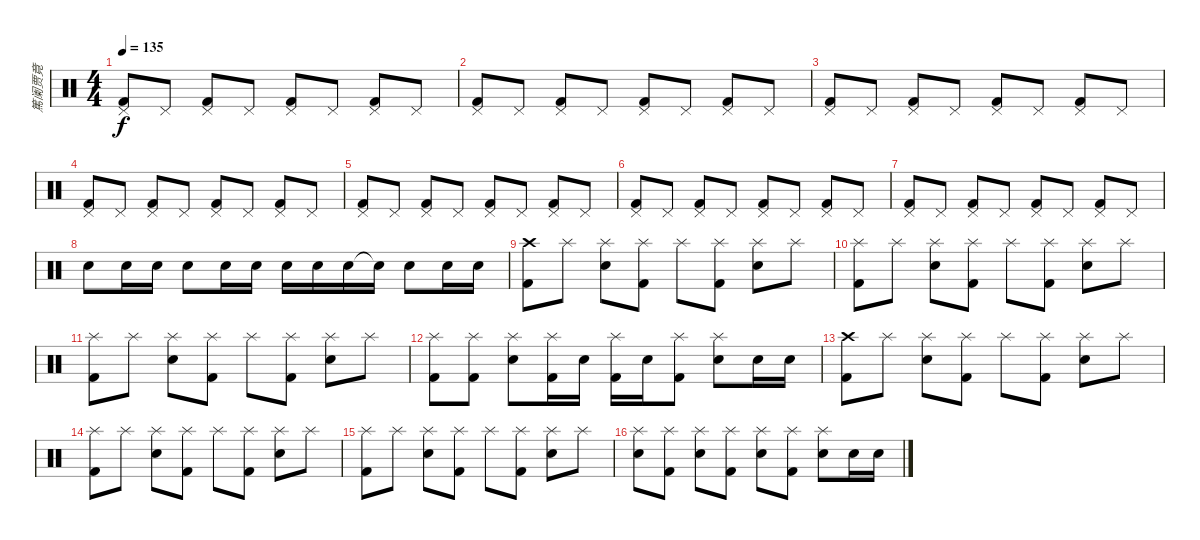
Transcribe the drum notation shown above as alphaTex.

\track ("篤阑贾竟" "篤阑贾竟") {instrument percussion}
\staff {score}
\articulation defaults
\ts (4 4)
\tempo 135
\clef neutral
\ks c
("Pedal Hi-Hat (hit)" "Kick (hit) 2").8{dy f} "Pedal Hi-Hat (hit)".8 ("Pedal Hi-Hat (hit)" "Kick (hit) 2").8 "Pedal Hi-Hat (hit)".8 ("Pedal Hi-Hat (hit)" "Kick (hit) 2").8 "Pedal Hi-Hat (hit)".8 ("Pedal Hi-Hat (hit)" "Kick (hit) 2").8 "Pedal Hi-Hat (hit)".8 |
("Pedal Hi-Hat (hit)" "Kick (hit) 2").8 "Pedal Hi-Hat (hit)".8 ("Pedal Hi-Hat (hit)" "Kick (hit) 2").8 "Pedal Hi-Hat (hit)".8 ("Pedal Hi-Hat (hit)" "Kick (hit) 2").8 "Pedal Hi-Hat (hit)".8 ("Pedal Hi-Hat (hit)" "Kick (hit) 2").8 "Pedal Hi-Hat (hit)".8 |
("Pedal Hi-Hat (hit)" "Kick (hit) 2").8 "Pedal Hi-Hat (hit)".8 ("Pedal Hi-Hat (hit)" "Kick (hit) 2").8 "Pedal Hi-Hat (hit)".8 ("Pedal Hi-Hat (hit)" "Kick (hit) 2").8 "Pedal Hi-Hat (hit)".8 ("Pedal Hi-Hat (hit)" "Kick (hit) 2").8 "Pedal Hi-Hat (hit)".8 |
("Pedal Hi-Hat (hit)" "Kick (hit) 2").8 "Pedal Hi-Hat (hit)".8 ("Pedal Hi-Hat (hit)" "Kick (hit) 2").8 "Pedal Hi-Hat (hit)".8 ("Pedal Hi-Hat (hit)" "Kick (hit) 2").8 "Pedal Hi-Hat (hit)".8 ("Pedal Hi-Hat (hit)" "Kick (hit) 2").8 "Pedal Hi-Hat (hit)".8 |
("Pedal Hi-Hat (hit)" "Kick (hit) 2").8 "Pedal Hi-Hat (hit)".8 ("Pedal Hi-Hat (hit)" "Kick (hit) 2").8 "Pedal Hi-Hat (hit)".8 ("Pedal Hi-Hat (hit)" "Kick (hit) 2").8 "Pedal Hi-Hat (hit)".8 ("Pedal Hi-Hat (hit)" "Kick (hit) 2").8 "Pedal Hi-Hat (hit)".8 |
("Pedal Hi-Hat (hit)" "Kick (hit) 2").8 "Pedal Hi-Hat (hit)".8 ("Pedal Hi-Hat (hit)" "Kick (hit) 2").8 "Pedal Hi-Hat (hit)".8 ("Pedal Hi-Hat (hit)" "Kick (hit) 2").8 "Pedal Hi-Hat (hit)".8 ("Pedal Hi-Hat (hit)" "Kick (hit) 2").8 "Pedal Hi-Hat (hit)".8 |
("Pedal Hi-Hat (hit)" "Kick (hit) 2").8 "Pedal Hi-Hat (hit)".8 ("Pedal Hi-Hat (hit)" "Kick (hit) 2").8 "Pedal Hi-Hat (hit)".8 ("Pedal Hi-Hat (hit)" "Kick (hit) 2").8 "Pedal Hi-Hat (hit)".8 ("Pedal Hi-Hat (hit)" "Kick (hit) 2").8 "Pedal Hi-Hat (hit)".8 |
"Electric Snare (hit)".8 "Electric Snare (hit)".16 "Electric Snare (hit)".16 "Electric Snare (hit)".8 "Electric Snare (hit)".16 "Electric Snare (hit)".16 "Electric Snare (hit)".16 "Electric Snare (hit)".16 "Electric Snare (hit)".16 "Snare (hit)"{t}.16 "Electric Snare (hit)".8 "Electric Snare (hit)".16 "Electric Snare (hit)".16 |
("Crash high (hit)" "Kick (hit) 2").8 "Splash (hit)".8 ("Splash (hit)" "Electric Snare (hit)").8 ("Splash (hit)" "Kick (hit) 2").8 "Splash (hit)".8 ("Splash (hit)" "Kick (hit) 2").8 ("Splash (hit)" "Electric Snare (hit)").8 "Splash (hit)".8 |
("Splash (hit)" "Kick (hit) 2").8 "Splash (hit)".8 ("Splash (hit)" "Electric Snare (hit)").8 ("Splash (hit)" "Kick (hit) 2").8 "Splash (hit)".8 ("Splash (hit)" "Kick (hit) 2").8 ("Splash (hit)" "Electric Snare (hit)").8 "Splash (hit)".8 |
("Splash (hit)" "Kick (hit) 2").8 "Splash (hit)".8 ("Splash (hit)" "Electric Snare (hit)").8 ("Splash (hit)" "Kick (hit) 2").8 "Splash (hit)".8 ("Splash (hit)" "Kick (hit) 2").8 ("Splash (hit)" "Electric Snare (hit)").8 "Splash (hit)".8 |
("Splash (hit)" "Kick (hit) 2").8 ("Splash (hit)" "Kick (hit) 2").8 ("Splash (hit)" "Electric Snare (hit)").8 ("Splash (hit)" "Kick (hit) 2").16 "Electric Snare (hit)".16 ("Splash (hit)" "Kick (hit) 2").16 "Electric Snare (hit)".16 ("Splash (hit)" "Kick (hit) 2").8 ("Splash (hit)" "Electric Snare (hit)").8 "Electric Snare (hit)".16 "Electric Snare (hit)".16 |
("Crash high (hit)" "Kick (hit) 2").8 "Splash (hit)".8 ("Splash (hit)" "Electric Snare (hit)").8 ("Splash (hit)" "Kick (hit) 2").8 "Splash (hit)".8 ("Splash (hit)" "Kick (hit) 2").8 ("Splash (hit)" "Electric Snare (hit)").8 "Splash (hit)".8 |
("Splash (hit)" "Kick (hit) 2").8 "Splash (hit)".8 ("Splash (hit)" "Electric Snare (hit)").8 ("Splash (hit)" "Kick (hit) 2").8 "Splash (hit)".8 ("Splash (hit)" "Kick (hit) 2").8 ("Splash (hit)" "Electric Snare (hit)").8 "Splash (hit)".8 |
("Splash (hit)" "Kick (hit) 2").8 "Splash (hit)".8 ("Splash (hit)" "Electric Snare (hit)").8 ("Splash (hit)" "Kick (hit) 2").8 "Splash (hit)".8 ("Splash (hit)" "Kick (hit) 2").8 ("Splash (hit)" "Electric Snare (hit)").8 "Splash (hit)".8 |
("Splash (hit)" "Electric Snare (hit)").8 ("Splash (hit)" "Kick (hit) 2").8 ("Splash (hit)" "Electric Snare (hit)").8 ("Splash (hit)" "Kick (hit) 2").8 ("Splash (hit)" "Electric Snare (hit)").8 ("Splash (hit)" "Kick (hit) 2").8 ("Splash (hit)" "Electric Snare (hit)").8 "Electric Snare (hit)".16 "Electric Snare (hit)".16
